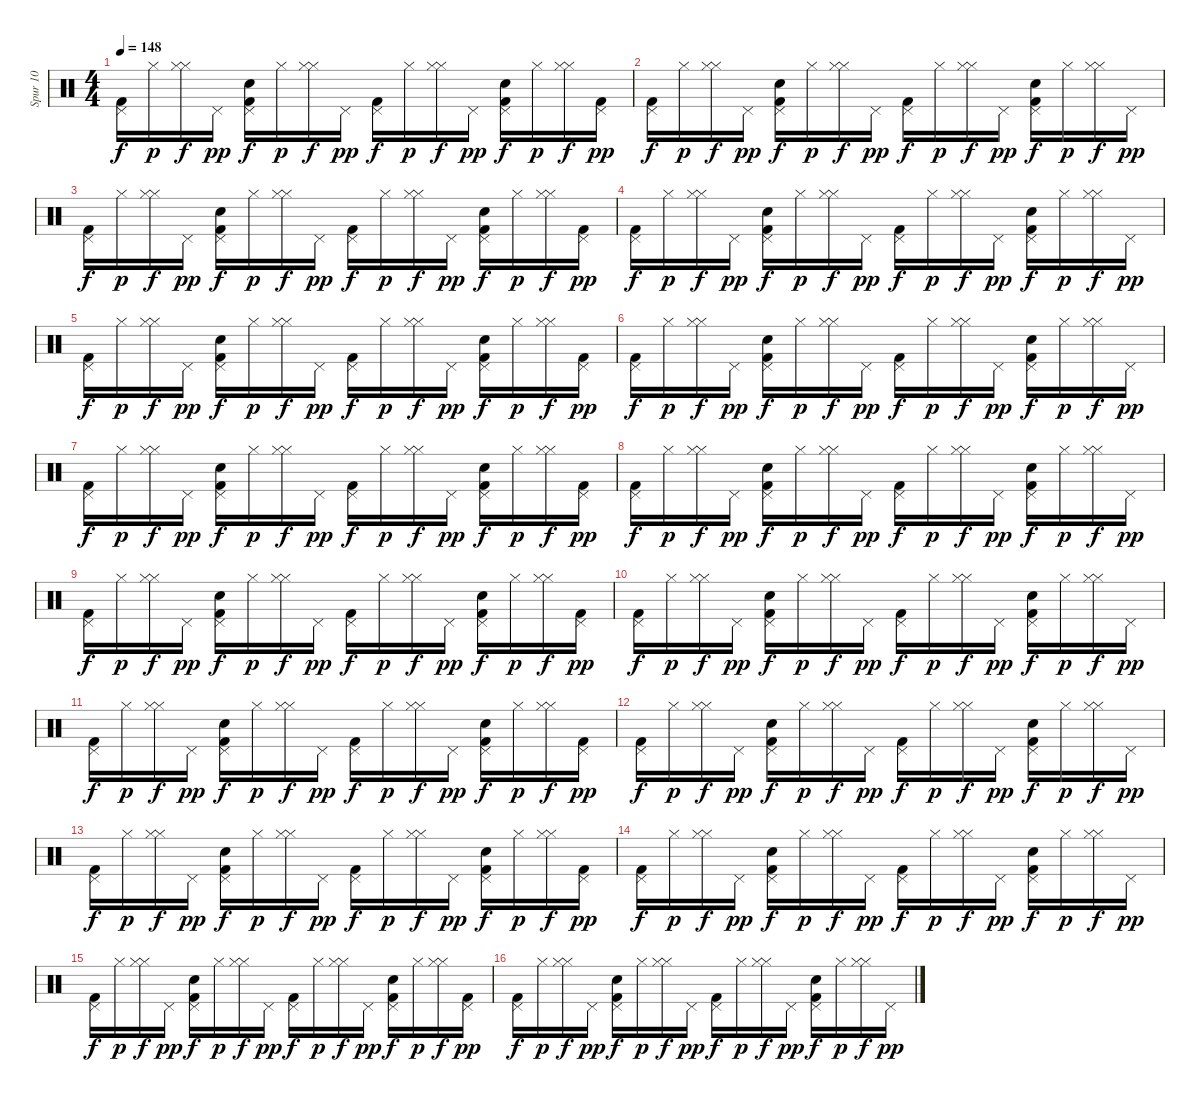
\track ("Spur 10" "Spur 10") {instrument percussion}
\staff {score}
\articulation defaults
\ts (4 4)
\tempo 148
\clef neutral
\ks c
("Pedal Hi-Hat (hit)" "Kick (hit) 2").16{dy f} "Hi-Hat (closed)".16{dy p} ("Hi-Hat (closed)" "Hi-Hat (closed)").16{dy f} "Pedal Hi-Hat (hit)".16{dy pp} ("Pedal Hi-Hat (hit)" "Snare (hit) 2" "Kick (hit) 2").16{dy f} "Hi-Hat (closed)".16{dy p} ("Hi-Hat (closed)" "Hi-Hat (closed)").16{dy f} "Pedal Hi-Hat (hit)".16{dy pp} ("Pedal Hi-Hat (hit)" "Kick (hit) 2").16{dy f} "Hi-Hat (closed)".16{dy p} ("Hi-Hat (closed)" "Hi-Hat (closed)").16{dy f} "Pedal Hi-Hat (hit)".16{dy pp} ("Pedal Hi-Hat (hit)" "Snare (hit) 2" "Kick (hit) 2").16{dy f} "Hi-Hat (closed)".16{dy p} ("Hi-Hat (closed)" "Hi-Hat (closed)").16{dy f} ("Kick (hit) 2" "Pedal Hi-Hat (hit)").16{dy pp} |
("Pedal Hi-Hat (hit)" "Kick (hit) 2").16{dy f} "Hi-Hat (closed)".16{dy p} ("Hi-Hat (closed)" "Hi-Hat (closed)").16{dy f} "Pedal Hi-Hat (hit)".16{dy pp} ("Pedal Hi-Hat (hit)" "Kick (hit) 2" "Snare (hit) 2").16{dy f} "Hi-Hat (closed)".16{dy p} ("Hi-Hat (closed)" "Hi-Hat (closed)").16{dy f} "Pedal Hi-Hat (hit)".16{dy pp} ("Pedal Hi-Hat (hit)" "Kick (hit) 2").16{dy f} "Hi-Hat (closed)".16{dy p} ("Hi-Hat (closed)" "Hi-Hat (closed)").16{dy f} "Pedal Hi-Hat (hit)".16{dy pp} ("Pedal Hi-Hat (hit)" "Snare (hit) 2" "Kick (hit) 2").16{dy f} "Hi-Hat (closed)".16{dy p} ("Hi-Hat (closed)" "Hi-Hat (closed)").16{dy f} "Pedal Hi-Hat (hit)".16{dy pp} |
("Pedal Hi-Hat (hit)" "Kick (hit) 2").16{dy f} "Hi-Hat (closed)".16{dy p} ("Hi-Hat (closed)" "Hi-Hat (closed)").16{dy f} "Pedal Hi-Hat (hit)".16{dy pp} ("Pedal Hi-Hat (hit)" "Snare (hit) 2" "Kick (hit) 2").16{dy f} "Hi-Hat (closed)".16{dy p} ("Hi-Hat (closed)" "Hi-Hat (closed)").16{dy f} "Pedal Hi-Hat (hit)".16{dy pp} ("Pedal Hi-Hat (hit)" "Kick (hit) 2").16{dy f} "Hi-Hat (closed)".16{dy p} ("Hi-Hat (closed)" "Hi-Hat (closed)").16{dy f} "Pedal Hi-Hat (hit)".16{dy pp} ("Pedal Hi-Hat (hit)" "Snare (hit) 2" "Kick (hit) 2").16{dy f} "Hi-Hat (closed)".16{dy p} ("Hi-Hat (closed)" "Hi-Hat (closed)").16{dy f} ("Kick (hit) 2" "Pedal Hi-Hat (hit)").16{dy pp} |
("Pedal Hi-Hat (hit)" "Kick (hit) 2").16{dy f} "Hi-Hat (closed)".16{dy p} ("Hi-Hat (closed)" "Hi-Hat (closed)").16{dy f} "Pedal Hi-Hat (hit)".16{dy pp} ("Pedal Hi-Hat (hit)" "Snare (hit) 2" "Kick (hit) 2").16{dy f} "Hi-Hat (closed)".16{dy p} ("Hi-Hat (closed)" "Hi-Hat (closed)").16{dy f} "Pedal Hi-Hat (hit)".16{dy pp} ("Pedal Hi-Hat (hit)" "Kick (hit) 2").16{dy f} "Hi-Hat (closed)".16{dy p} ("Hi-Hat (closed)" "Hi-Hat (closed)").16{dy f} "Pedal Hi-Hat (hit)".16{dy pp} ("Pedal Hi-Hat (hit)" "Snare (hit) 2" "Kick (hit) 2").16{dy f} "Hi-Hat (closed)".16{dy p} ("Hi-Hat (closed)" "Hi-Hat (closed)").16{dy f} "Pedal Hi-Hat (hit)".16{dy pp} |
("Pedal Hi-Hat (hit)" "Kick (hit) 2").16{dy f} "Hi-Hat (closed)".16{dy p} ("Hi-Hat (closed)" "Hi-Hat (closed)").16{dy f} "Pedal Hi-Hat (hit)".16{dy pp} ("Pedal Hi-Hat (hit)" "Kick (hit) 2" "Snare (hit) 2").16{dy f} "Hi-Hat (closed)".16{dy p} ("Hi-Hat (closed)" "Hi-Hat (closed)").16{dy f} "Pedal Hi-Hat (hit)".16{dy pp} ("Pedal Hi-Hat (hit)" "Kick (hit) 2").16{dy f} "Hi-Hat (closed)".16{dy p} ("Hi-Hat (closed)" "Hi-Hat (closed)").16{dy f} "Pedal Hi-Hat (hit)".16{dy pp} ("Pedal Hi-Hat (hit)" "Kick (hit) 2" "Snare (hit) 2").16{dy f} "Hi-Hat (closed)".16{dy p} ("Hi-Hat (closed)" "Hi-Hat (closed)").16{dy f} ("Kick (hit) 2" "Pedal Hi-Hat (hit)").16{dy pp} |
("Pedal Hi-Hat (hit)" "Kick (hit) 2").16{dy f} "Hi-Hat (closed)".16{dy p} ("Hi-Hat (closed)" "Hi-Hat (closed)").16{dy f} "Pedal Hi-Hat (hit)".16{dy pp} ("Pedal Hi-Hat (hit)" "Snare (hit) 2" "Kick (hit) 2").16{dy f} "Hi-Hat (closed)".16{dy p} ("Hi-Hat (closed)" "Hi-Hat (closed)").16{dy f} "Pedal Hi-Hat (hit)".16{dy pp} ("Pedal Hi-Hat (hit)" "Kick (hit) 2").16{dy f} "Hi-Hat (closed)".16{dy p} ("Hi-Hat (closed)" "Hi-Hat (closed)").16{dy f} "Pedal Hi-Hat (hit)".16{dy pp} ("Pedal Hi-Hat (hit)" "Kick (hit) 2" "Snare (hit) 2").16{dy f} "Hi-Hat (closed)".16{dy p} ("Hi-Hat (closed)" "Hi-Hat (closed)").16{dy f} "Pedal Hi-Hat (hit)".16{dy pp} |
("Pedal Hi-Hat (hit)" "Kick (hit) 2").16{dy f} "Hi-Hat (closed)".16{dy p} ("Hi-Hat (closed)" "Hi-Hat (closed)").16{dy f} "Pedal Hi-Hat (hit)".16{dy pp} ("Pedal Hi-Hat (hit)" "Snare (hit) 2" "Kick (hit) 2").16{dy f} "Hi-Hat (closed)".16{dy p} ("Hi-Hat (closed)" "Hi-Hat (closed)").16{dy f} "Pedal Hi-Hat (hit)".16{dy pp} ("Pedal Hi-Hat (hit)" "Kick (hit) 2").16{dy f} "Hi-Hat (closed)".16{dy p} ("Hi-Hat (closed)" "Hi-Hat (closed)").16{dy f} "Pedal Hi-Hat (hit)".16{dy pp} ("Pedal Hi-Hat (hit)" "Kick (hit) 2" "Snare (hit) 2").16{dy f} "Hi-Hat (closed)".16{dy p} ("Hi-Hat (closed)" "Hi-Hat (closed)").16{dy f} ("Kick (hit) 2" "Pedal Hi-Hat (hit)").16{dy pp} |
("Pedal Hi-Hat (hit)" "Kick (hit) 2").16{dy f} "Hi-Hat (closed)".16{dy p} ("Hi-Hat (closed)" "Hi-Hat (closed)").16{dy f} "Pedal Hi-Hat (hit)".16{dy pp} ("Pedal Hi-Hat (hit)" "Kick (hit) 2" "Snare (hit) 2").16{dy f} "Hi-Hat (closed)".16{dy p} ("Hi-Hat (closed)" "Hi-Hat (closed)").16{dy f} "Pedal Hi-Hat (hit)".16{dy pp} ("Pedal Hi-Hat (hit)" "Kick (hit) 2").16{dy f} "Hi-Hat (closed)".16{dy p} ("Hi-Hat (closed)" "Hi-Hat (closed)").16{dy f} "Pedal Hi-Hat (hit)".16{dy pp} ("Pedal Hi-Hat (hit)" "Kick (hit) 2" "Snare (hit) 2").16{dy f} "Hi-Hat (closed)".16{dy p} ("Hi-Hat (closed)" "Hi-Hat (closed)").16{dy f} "Pedal Hi-Hat (hit)".16{dy pp} |
("Pedal Hi-Hat (hit)" "Kick (hit) 2").16{dy f} "Hi-Hat (closed)".16{dy p} ("Hi-Hat (closed)" "Hi-Hat (closed)").16{dy f} "Pedal Hi-Hat (hit)".16{dy pp} ("Pedal Hi-Hat (hit)" "Snare (hit) 2" "Kick (hit) 2").16{dy f} "Hi-Hat (closed)".16{dy p} ("Hi-Hat (closed)" "Hi-Hat (closed)").16{dy f} "Pedal Hi-Hat (hit)".16{dy pp} ("Pedal Hi-Hat (hit)" "Kick (hit) 2").16{dy f} "Hi-Hat (closed)".16{dy p} ("Hi-Hat (closed)" "Hi-Hat (closed)").16{dy f} "Pedal Hi-Hat (hit)".16{dy pp} ("Pedal Hi-Hat (hit)" "Snare (hit) 2" "Kick (hit) 2").16{dy f} "Hi-Hat (closed)".16{dy p} ("Hi-Hat (closed)" "Hi-Hat (closed)").16{dy f} ("Kick (hit) 2" "Pedal Hi-Hat (hit)").16{dy pp} |
("Pedal Hi-Hat (hit)" "Kick (hit) 2").16{dy f} "Hi-Hat (closed)".16{dy p} ("Hi-Hat (closed)" "Hi-Hat (closed)").16{dy f} "Pedal Hi-Hat (hit)".16{dy pp} ("Pedal Hi-Hat (hit)" "Kick (hit) 2" "Snare (hit) 2").16{dy f} "Hi-Hat (closed)".16{dy p} ("Hi-Hat (closed)" "Hi-Hat (closed)").16{dy f} "Pedal Hi-Hat (hit)".16{dy pp} ("Pedal Hi-Hat (hit)" "Kick (hit) 2").16{dy f} "Hi-Hat (closed)".16{dy p} ("Hi-Hat (closed)" "Hi-Hat (closed)").16{dy f} "Pedal Hi-Hat (hit)".16{dy pp} ("Pedal Hi-Hat (hit)" "Snare (hit) 2" "Kick (hit) 2").16{dy f} "Hi-Hat (closed)".16{dy p} ("Hi-Hat (closed)" "Hi-Hat (closed)").16{dy f} "Pedal Hi-Hat (hit)".16{dy pp} |
("Pedal Hi-Hat (hit)" "Kick (hit) 2").16{dy f} "Hi-Hat (closed)".16{dy p} ("Hi-Hat (closed)" "Hi-Hat (closed)").16{dy f} "Pedal Hi-Hat (hit)".16{dy pp} ("Pedal Hi-Hat (hit)" "Kick (hit) 2" "Snare (hit) 2").16{dy f} "Hi-Hat (closed)".16{dy p} ("Hi-Hat (closed)" "Hi-Hat (closed)").16{dy f} "Pedal Hi-Hat (hit)".16{dy pp} ("Pedal Hi-Hat (hit)" "Kick (hit) 2").16{dy f} "Hi-Hat (closed)".16{dy p} ("Hi-Hat (closed)" "Hi-Hat (closed)").16{dy f} "Pedal Hi-Hat (hit)".16{dy pp} ("Pedal Hi-Hat (hit)" "Kick (hit) 2" "Snare (hit) 2").16{dy f} "Hi-Hat (closed)".16{dy p} ("Hi-Hat (closed)" "Hi-Hat (closed)").16{dy f} ("Kick (hit) 2" "Pedal Hi-Hat (hit)").16{dy pp} |
("Pedal Hi-Hat (hit)" "Kick (hit) 2").16{dy f} "Hi-Hat (closed)".16{dy p} ("Hi-Hat (closed)" "Hi-Hat (closed)").16{dy f} "Pedal Hi-Hat (hit)".16{dy pp} ("Pedal Hi-Hat (hit)" "Snare (hit) 2" "Kick (hit) 2").16{dy f} "Hi-Hat (closed)".16{dy p} ("Hi-Hat (closed)" "Hi-Hat (closed)").16{dy f} "Pedal Hi-Hat (hit)".16{dy pp} ("Pedal Hi-Hat (hit)" "Kick (hit) 2").16{dy f} "Hi-Hat (closed)".16{dy p} ("Hi-Hat (closed)" "Hi-Hat (closed)").16{dy f} "Pedal Hi-Hat (hit)".16{dy pp} ("Pedal Hi-Hat (hit)" "Snare (hit) 2" "Kick (hit) 2").16{dy f} "Hi-Hat (closed)".16{dy p} ("Hi-Hat (closed)" "Hi-Hat (closed)").16{dy f} "Pedal Hi-Hat (hit)".16{dy pp} |
("Pedal Hi-Hat (hit)" "Kick (hit) 2").16{dy f} "Hi-Hat (closed)".16{dy p} ("Hi-Hat (closed)" "Hi-Hat (closed)").16{dy f} "Pedal Hi-Hat (hit)".16{dy pp} ("Pedal Hi-Hat (hit)" "Kick (hit) 2" "Snare (hit) 2").16{dy f} "Hi-Hat (closed)".16{dy p} ("Hi-Hat (closed)" "Hi-Hat (closed)").16{dy f} "Pedal Hi-Hat (hit)".16{dy pp} ("Pedal Hi-Hat (hit)" "Kick (hit) 2").16{dy f} "Hi-Hat (closed)".16{dy p} ("Hi-Hat (closed)" "Hi-Hat (closed)").16{dy f} "Pedal Hi-Hat (hit)".16{dy pp} ("Pedal Hi-Hat (hit)" "Kick (hit) 2" "Snare (hit) 2").16{dy f} "Hi-Hat (closed)".16{dy p} ("Hi-Hat (closed)" "Hi-Hat (closed)").16{dy f} ("Kick (hit) 2" "Pedal Hi-Hat (hit)").16{dy pp} |
("Pedal Hi-Hat (hit)" "Kick (hit) 2").16{dy f} "Hi-Hat (closed)".16{dy p} ("Hi-Hat (closed)" "Hi-Hat (closed)").16{dy f} "Pedal Hi-Hat (hit)".16{dy pp} ("Pedal Hi-Hat (hit)" "Kick (hit) 2" "Snare (hit) 2").16{dy f} "Hi-Hat (closed)".16{dy p} ("Hi-Hat (closed)" "Hi-Hat (closed)").16{dy f} "Pedal Hi-Hat (hit)".16{dy pp} ("Pedal Hi-Hat (hit)" "Kick (hit) 2").16{dy f} "Hi-Hat (closed)".16{dy p} ("Hi-Hat (closed)" "Hi-Hat (closed)").16{dy f} "Pedal Hi-Hat (hit)".16{dy pp} ("Pedal Hi-Hat (hit)" "Snare (hit) 2" "Kick (hit) 2").16{dy f} "Hi-Hat (closed)".16{dy p} ("Hi-Hat (closed)" "Hi-Hat (closed)").16{dy f} "Pedal Hi-Hat (hit)".16{dy pp} |
("Pedal Hi-Hat (hit)" "Kick (hit) 2").16{dy f} "Hi-Hat (closed)".16{dy p} ("Hi-Hat (closed)" "Hi-Hat (closed)").16{dy f} "Pedal Hi-Hat (hit)".16{dy pp} ("Pedal Hi-Hat (hit)" "Kick (hit) 2" "Snare (hit) 2").16{dy f} "Hi-Hat (closed)".16{dy p} ("Hi-Hat (closed)" "Hi-Hat (closed)").16{dy f} "Pedal Hi-Hat (hit)".16{dy pp} ("Pedal Hi-Hat (hit)" "Kick (hit) 2").16{dy f} "Hi-Hat (closed)".16{dy p} ("Hi-Hat (closed)" "Hi-Hat (closed)").16{dy f} "Pedal Hi-Hat (hit)".16{dy pp} ("Pedal Hi-Hat (hit)" "Kick (hit) 2" "Snare (hit) 2").16{dy f} "Hi-Hat (closed)".16{dy p} ("Hi-Hat (closed)" "Hi-Hat (closed)").16{dy f} ("Kick (hit) 2" "Pedal Hi-Hat (hit)").16{dy pp} |
("Pedal Hi-Hat (hit)" "Kick (hit) 2").16{dy f} "Hi-Hat (closed)".16{dy p} ("Hi-Hat (closed)" "Hi-Hat (closed)").16{dy f} "Pedal Hi-Hat (hit)".16{dy pp} ("Pedal Hi-Hat (hit)" "Kick (hit) 2" "Snare (hit) 2").16{dy f} "Hi-Hat (closed)".16{dy p} ("Hi-Hat (closed)" "Hi-Hat (closed)").16{dy f} "Pedal Hi-Hat (hit)".16{dy pp} ("Pedal Hi-Hat (hit)" "Kick (hit) 2").16{dy f} "Hi-Hat (closed)".16{dy p} ("Hi-Hat (closed)" "Hi-Hat (closed)").16{dy f} "Pedal Hi-Hat (hit)".16{dy pp} ("Pedal Hi-Hat (hit)" "Kick (hit) 2" "Snare (hit) 2").16{dy f} "Hi-Hat (closed)".16{dy p} ("Hi-Hat (closed)" "Hi-Hat (closed)").16{dy f} "Pedal Hi-Hat (hit)".16{dy pp}
